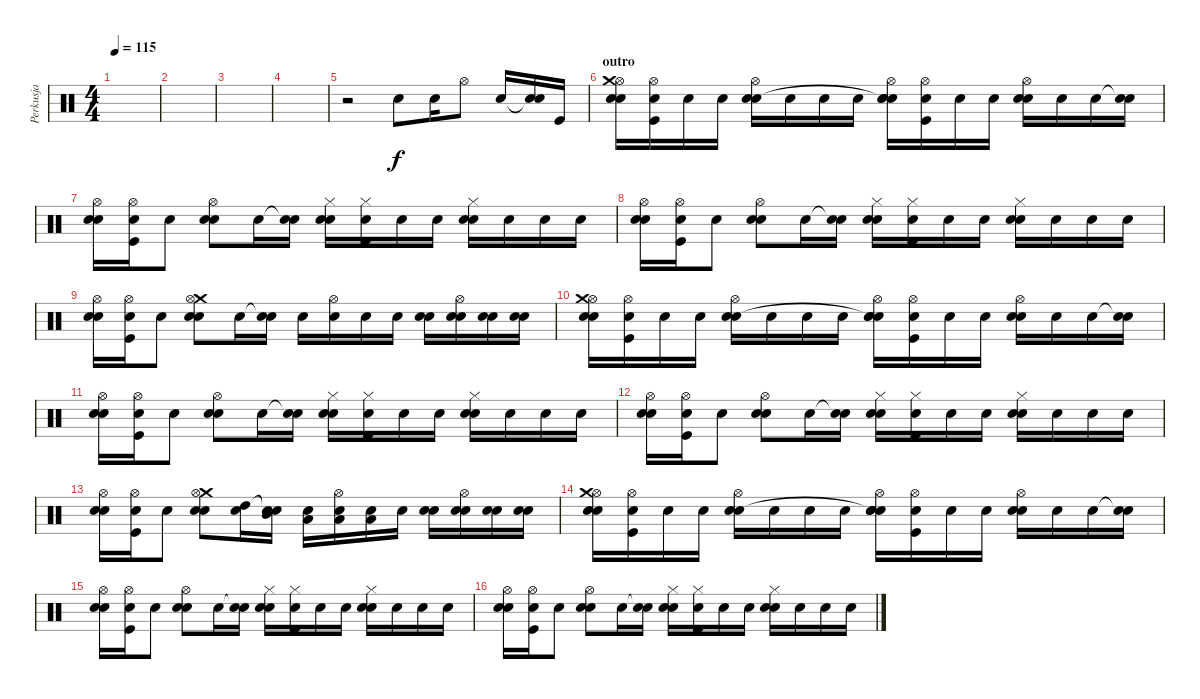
\track ("Perkusja" "Perkusja") {instrument percussion}
\staff {score}
\articulation defaults
\ts (4 4)
\tempo 115
\clef neutral
\ks c
|
|
|
|
r.2 "Electric Snare (hit)".8 "Snare (hit) 2".16 "Hi-Hat (open)".8 "Electric Snare (hit)".16 ("Snare (hit)"{t} "Snare (hit) 2").16 "Kick (hit)".16 |
\section ("" "outro")
("Hi-Hat (open)" "Electric Snare (hit)" "Crash medium (hit)" "Snare (hit)").16 ("Hi-Hat (open)" "Kick (hit)" "Snare (hit)").16 "Snare (hit)".16 "Snare (hit)".16 ("Electric Snare (hit)" "Hi-Hat (open)" "Snare (hit)").16 "Snare (hit)".16 "Snare (hit)".16 "Snare (hit)".16 ("Hi-Hat (open)" "Snare (hit) 2" "Electric Snare (hit)"{t} "Snare (hit)").16 ("Hi-Hat (open)" "Kick (hit)" "Snare (hit)").16 "Snare (hit)".16 "Snare (hit)".16 ("Electric Snare (hit)" "Hi-Hat (open)" "Snare (hit)").16 "Snare (hit)".16 "Snare (hit)".16 ("Snare (hit)"{t} "Snare (hit)").16 |
("Hi-Hat (open)" "Snare (hit) 2" "Snare (hit)").16 ("Hi-Hat (open)" "Kick (hit)" "Snare (hit)").16 "Snare (hit)".8 ("Electric Snare (hit)" "Hi-Hat (open)" "Snare (hit)").8 "Snare (hit)".16 ("Snare (hit)"{t} "Snare (hit)").16 ("Hi-Hat (closed)" "Snare (hit) 2" "Snare (hit)").16 ("Hi-Hat (closed)" "Kick (hit)" "Snare (hit)").16 "Snare (hit)".16 "Snare (hit)".16 ("Electric Snare (hit)" "Hi-Hat (closed)" "Snare (hit)").16 "Snare (hit)".16 "Snare (hit)".16 "Snare (hit)".16 |
("Hi-Hat (open)" "Snare (hit) 2" "Snare (hit)").16 ("Hi-Hat (open)" "Kick (hit)" "Snare (hit)").16 "Snare (hit)".8 ("Electric Snare (hit)" "Hi-Hat (open)" "Snare (hit)").8 "Snare (hit)".16 ("Snare (hit)"{t} "Snare (hit)").16 ("Hi-Hat (closed)" "Snare (hit) 2" "Snare (hit)").16 ("Hi-Hat (closed)" "Kick (hit)" "Snare (hit)").16 "Snare (hit)".16 "Snare (hit)".16 ("Electric Snare (hit)" "Hi-Hat (closed)" "Snare (hit)").16 "Snare (hit)".16 "Snare (hit)".16 "Snare (hit)".16 |
("Hi-Hat (open)" "Snare (hit) 2" "Snare (hit)").16 ("Hi-Hat (open)" "Kick (hit)" "Snare (hit)").16 "Snare (hit)".8 ("Electric Snare (hit)" "Crash medium (hit)" "Hi-Hat (open)" "Snare (hit)").8 "Snare (hit)".16 ("Snare (hit)"{t} "Snare (hit)").16 "Snare (hit)".16 ("Hi-Hat (open)" "Snare (hit)").16 "Snare (hit)".16 "Snare (hit)".16 ("Electric Snare (hit)" "Snare (hit)").16 ("Hi-Hat (open)" "Electric Snare (hit)" "Snare (hit)").16 ("Electric Snare (hit)" "Snare (hit)").16 ("Snare (hit) 2" "Snare (hit)").16 |
("Hi-Hat (open)" "Electric Snare (hit)" "Crash medium (hit)" "Snare (hit)").16 ("Hi-Hat (open)" "Kick (hit)" "Snare (hit)").16 "Snare (hit)".16 "Snare (hit)".16 ("Electric Snare (hit)" "Hi-Hat (open)" "Snare (hit)").16 "Snare (hit)".16 "Snare (hit)".16 "Snare (hit)".16 ("Hi-Hat (open)" "Snare (hit) 2" "Electric Snare (hit)"{t} "Snare (hit)").16 ("Hi-Hat (open)" "Kick (hit)" "Snare (hit)").16 "Snare (hit)".16 "Snare (hit)".16 ("Electric Snare (hit)" "Hi-Hat (open)" "Snare (hit)").16 "Snare (hit)".16 "Snare (hit)".16 ("Snare (hit)"{t} "Snare (hit)").16 |
("Hi-Hat (open)" "Snare (hit) 2" "Snare (hit)").16 ("Hi-Hat (open)" "Kick (hit)" "Snare (hit)").16 "Snare (hit)".8 ("Electric Snare (hit)" "Hi-Hat (open)" "Snare (hit)").8 "Snare (hit)".16 ("Snare (hit)"{t} "Snare (hit)").16 ("Hi-Hat (closed)" "Snare (hit) 2" "Snare (hit)").16 ("Hi-Hat (closed)" "Kick (hit)" "Snare (hit)").16 "Snare (hit)".16 "Snare (hit)".16 ("Electric Snare (hit)" "Hi-Hat (closed)" "Snare (hit)").16 "Snare (hit)".16 "Snare (hit)".16 "Snare (hit)".16 |
("Hi-Hat (open)" "Snare (hit) 2" "Snare (hit)").16 ("Hi-Hat (open)" "Kick (hit)" "Snare (hit)").16 "Snare (hit)".8 ("Electric Snare (hit)" "Hi-Hat (open)" "Snare (hit)").8 "Snare (hit)".16 ("Snare (hit)"{t} "Snare (hit)").16 ("Hi-Hat (closed)" "Snare (hit) 2" "Snare (hit)").16 ("Hi-Hat (closed)" "Kick (hit)" "Snare (hit)").16 "Snare (hit)".16 "Snare (hit)".16 ("Electric Snare (hit)" "Hi-Hat (closed)" "Snare (hit)").16 "Snare (hit)".16 "Snare (hit)".16 "Snare (hit)".16 |
("Hi-Hat (open)" "Snare (hit) 2" "Snare (hit)").16 ("Hi-Hat (open)" "Kick (hit)" "Snare (hit)").16 "Snare (hit)".8 ("Electric Snare (hit)" "Crash medium (hit)" "Hi-Hat (open)" "Snare (hit)").8 ("High Tom (hit)" "Snare (hit)").16 ("Snare (hit)"{t} "Mid Tom (hit)" "Snare (hit)").16 ("Low Tom (hit)" "Snare (hit)").16 ("Hi-Hat (open)" "Low Tom (hit)" "Snare (hit)").16 ("Low Tom (hit)" "Snare (hit)").16 "Snare (hit)".16 ("Electric Snare (hit)" "Snare (hit)").16 ("Hi-Hat (open)" "Electric Snare (hit)" "Snare (hit)").16 ("Electric Snare (hit)" "Snare (hit)").16 ("Electric Snare (hit)" "Snare (hit)").16 |
("Hi-Hat (open)" "Electric Snare (hit)" "Crash medium (hit)" "Snare (hit)").16 ("Hi-Hat (open)" "Kick (hit)" "Snare (hit)").16 "Snare (hit)".16 "Snare (hit)".16 ("Electric Snare (hit)" "Hi-Hat (open)" "Snare (hit)").16 "Snare (hit)".16 "Snare (hit)".16 "Snare (hit)".16 ("Hi-Hat (open)" "Snare (hit) 2" "Electric Snare (hit)"{t} "Snare (hit)").16 ("Hi-Hat (open)" "Kick (hit)" "Snare (hit)").16 "Snare (hit)".16 "Snare (hit)".16 ("Electric Snare (hit)" "Hi-Hat (open)" "Snare (hit)").16 "Snare (hit)".16 "Snare (hit)".16 ("Snare (hit)"{t} "Snare (hit)").16 |
("Hi-Hat (open)" "Snare (hit) 2" "Snare (hit)").16 ("Hi-Hat (open)" "Kick (hit)" "Snare (hit)").16 "Snare (hit)".8 ("Electric Snare (hit)" "Hi-Hat (open)" "Snare (hit)").8 "Snare (hit)".16 ("Snare (hit)"{t} "Snare (hit)").16 ("Hi-Hat (closed)" "Snare (hit) 2" "Snare (hit)").16 ("Hi-Hat (closed)" "Kick (hit)" "Snare (hit)").16 "Snare (hit)".16 "Snare (hit)".16 ("Electric Snare (hit)" "Hi-Hat (closed)" "Snare (hit)").16 "Snare (hit)".16 "Snare (hit)".16 "Snare (hit)".16 |
("Hi-Hat (open)" "Snare (hit) 2" "Snare (hit)").16 ("Hi-Hat (open)" "Kick (hit)" "Snare (hit)").16 "Snare (hit)".8 ("Electric Snare (hit)" "Hi-Hat (open)" "Snare (hit)").8 "Snare (hit)".16 ("Snare (hit)"{t} "Snare (hit)").16 ("Hi-Hat (closed)" "Snare (hit) 2" "Snare (hit)").16 ("Hi-Hat (closed)" "Kick (hit)" "Snare (hit)").16 "Snare (hit)".16 "Snare (hit)".16 ("Electric Snare (hit)" "Hi-Hat (closed)" "Snare (hit)").16 "Snare (hit)".16 "Snare (hit)".16 "Snare (hit)".16
